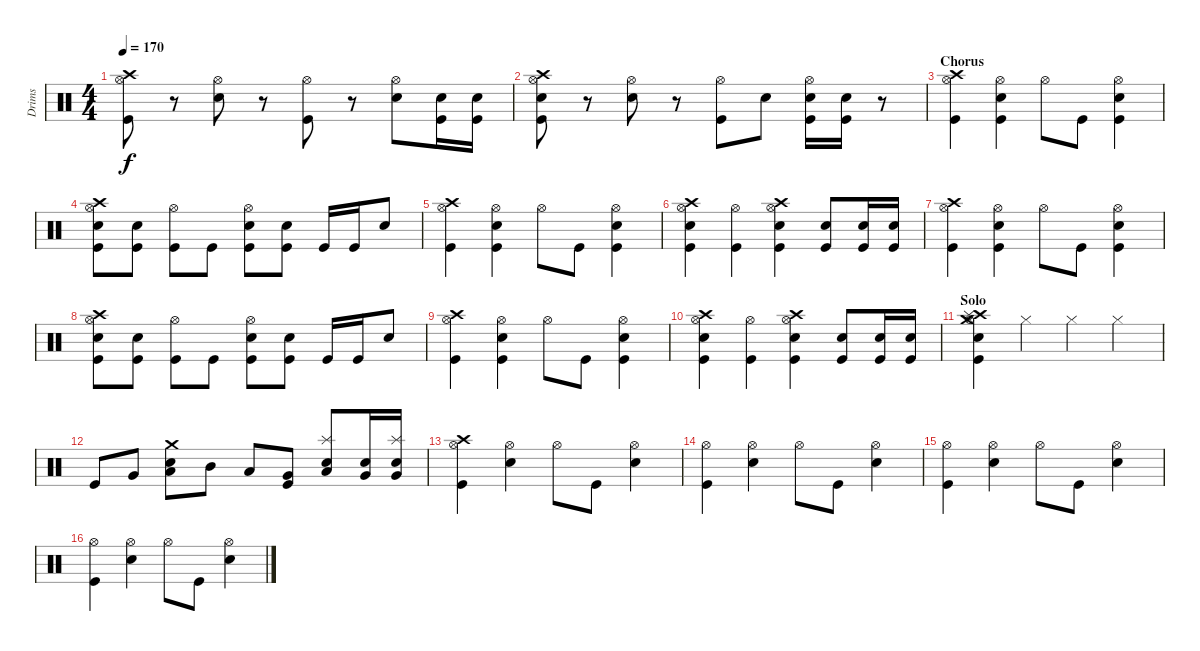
\track ("Drims" "Drims") {instrument percussion}
\staff {score}
\articulation defaults
\ts (4 4)
\tempo 170
\clef neutral
\ks c
("Hi-Hat (open)" "Crash high (hit)" "Kick (hit)").8{dy f} r.8 ("Hi-Hat (open)" "Electric Snare (hit)").8 r.8 ("Hi-Hat (open)" "Kick (hit)").8 r.8 ("Hi-Hat (open)" "Electric Snare (hit)").8 ("Electric Snare (hit)" "Kick (hit)").16 ("Electric Snare (hit)" "Kick (hit)").16 |
("Hi-Hat (open)" "Crash high (hit)" "Electric Snare (hit)" "Kick (hit)").8 r.8 ("Hi-Hat (open)" "Electric Snare (hit)").8 r.8 ("Hi-Hat (open)" "Kick (hit)").8 "Electric Snare (hit)".8 ("Hi-Hat (open)" "Electric Snare (hit)" "Kick (hit)").16 ("Electric Snare (hit)" "Kick (hit)").16 r.8 |
\section ("" "Chorus")
("Hi-Hat (open)" "Crash high (hit)" "Kick (hit)").4 ("Hi-Hat (open)" "Electric Snare (hit)" "Kick (hit)").4 "Hi-Hat (open)".8 "Kick (hit)".8 ("Hi-Hat (open)" "Electric Snare (hit)" "Kick (hit)").4 |
("Hi-Hat (open)" "Crash high (hit)" "Electric Snare (hit)" "Kick (hit)").8 ("Electric Snare (hit)" "Kick (hit)").8 ("Hi-Hat (open)" "Kick (hit)").8 "Kick (hit)".8 ("Hi-Hat (open)" "Electric Snare (hit)" "Kick (hit)").8 ("Electric Snare (hit)" "Kick (hit)").8 "Kick (hit)".16 "Kick (hit)".16 "Electric Snare (hit)".8 |
("Hi-Hat (open)" "Crash high (hit)" "Kick (hit)").4 ("Hi-Hat (open)" "Electric Snare (hit)" "Kick (hit)").4 "Hi-Hat (open)".8 "Kick (hit)".8 ("Hi-Hat (open)" "Electric Snare (hit)" "Kick (hit)").4 |
("Hi-Hat (open)" "Crash high (hit)" "Electric Snare (hit)" "Kick (hit)").4 ("Hi-Hat (open)" "Kick (hit)").4 ("Hi-Hat (open)" "Crash high (hit)" "Electric Snare (hit)" "Kick (hit)").4 ("Electric Snare (hit)" "Kick (hit)").8 ("Electric Snare (hit)" "Kick (hit)").16 ("Electric Snare (hit)" "Kick (hit)").16 |
("Hi-Hat (open)" "Crash high (hit)" "Kick (hit)").4 ("Hi-Hat (open)" "Electric Snare (hit)" "Kick (hit)").4 "Hi-Hat (open)".8 "Kick (hit)".8 ("Hi-Hat (open)" "Electric Snare (hit)" "Kick (hit)").4 |
("Hi-Hat (open)" "Crash high (hit)" "Electric Snare (hit)" "Kick (hit)").8 ("Electric Snare (hit)" "Kick (hit)").8 ("Hi-Hat (open)" "Kick (hit)").8 "Kick (hit)".8 ("Hi-Hat (open)" "Electric Snare (hit)" "Kick (hit)").8 ("Electric Snare (hit)" "Kick (hit)").8 "Kick (hit)".16 "Kick (hit)".16 "Electric Snare (hit)".8 |
("Hi-Hat (open)" "Crash high (hit)" "Kick (hit)").4 ("Hi-Hat (open)" "Electric Snare (hit)" "Kick (hit)").4 "Hi-Hat (open)".8 "Kick (hit)".8 ("Hi-Hat (open)" "Electric Snare (hit)" "Kick (hit)").4 |
("Hi-Hat (open)" "Crash high (hit)" "Electric Snare (hit)" "Kick (hit)").4 ("Hi-Hat (open)" "Kick (hit)").4 ("Hi-Hat (open)" "Crash high (hit)" "Electric Snare (hit)" "Kick (hit)").4 ("Electric Snare (hit)" "Kick (hit)").8 ("Electric Snare (hit)" "Kick (hit)").16 ("Electric Snare (hit)" "Kick (hit)").16 |
\section ("" "Solo")
("Crash medium (hit)" "Crash high (hit)" "Splash (hit)" "Hi-Hat (open)" "Electric Snare (hit)" "Kick (hit)").4 "Hi-Hat (closed)".4 "Hi-Hat (closed)".4 "Hi-Hat (closed)".4 |
"Kick (hit)".8 "Very Low Tom (hit)".8 ("Crash medium (hit)" "Electric Snare (hit)" "Low Tom (hit)").8 "Mid Tom (hit)".8 "Low Tom (hit)".8 ("Very Low Tom (hit)" "Kick (hit)").8 ("Splash (hit)" "Electric Snare (hit)" "Low Floor Tom (hit)").8 ("Electric Snare (hit)" "Very Low Tom (hit)").16 ("Splash (hit)" "Electric Snare (hit)" "Very Low Tom (hit)").16 |
("Hi-Hat (open)" "Crash high (hit)" "Kick (hit)").4 ("Hi-Hat (open)" "Electric Snare (hit)").4 "Hi-Hat (open)".8 "Kick (hit)".8 ("Hi-Hat (open)" "Electric Snare (hit)").4 |
("Hi-Hat (open)" "Kick (hit)").4 ("Hi-Hat (open)" "Electric Snare (hit)").4 "Hi-Hat (open)".8 "Kick (hit)".8 ("Hi-Hat (open)" "Electric Snare (hit)").4 |
("Hi-Hat (open)" "Kick (hit)").4 ("Hi-Hat (open)" "Electric Snare (hit)").4 "Hi-Hat (open)".8 "Kick (hit)".8 ("Hi-Hat (open)" "Electric Snare (hit)").4 |
("Hi-Hat (open)" "Kick (hit)").4 ("Hi-Hat (open)" "Electric Snare (hit)").4 "Hi-Hat (open)".8 "Kick (hit)".8 ("Hi-Hat (open)" "Electric Snare (hit)").4
